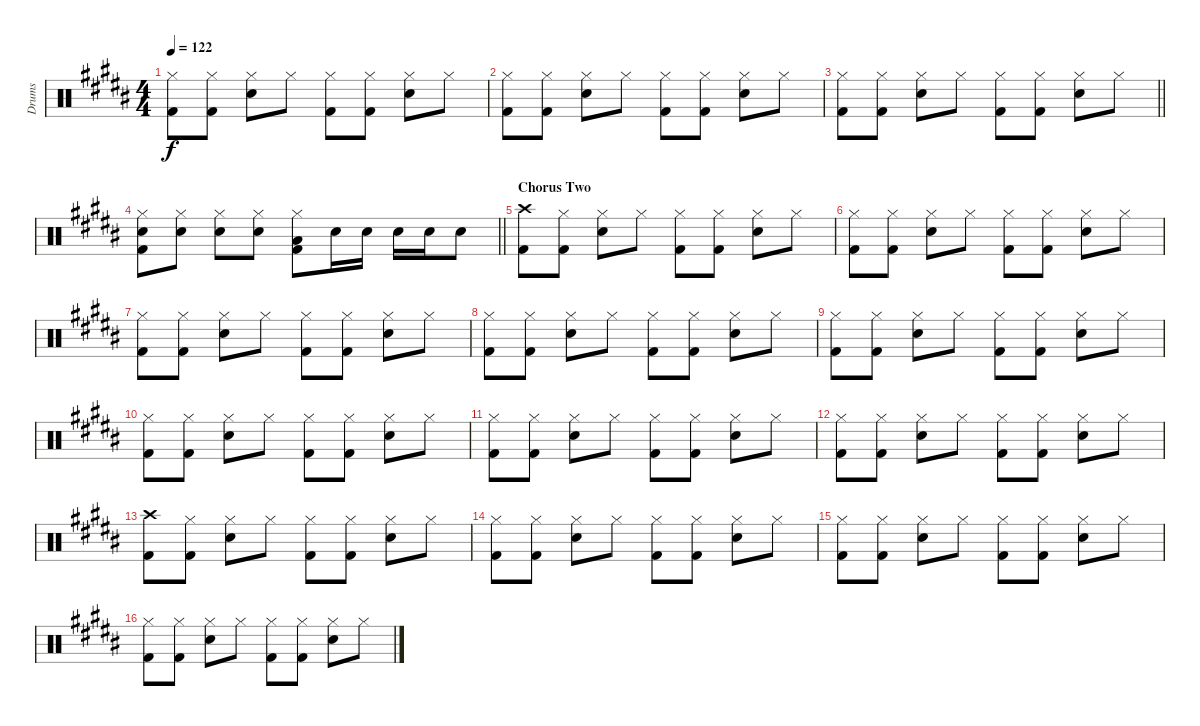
\track ("Drums" "Drums") {instrument percussion}
\staff {score}
\articulation defaults
\ts (4 4)
\tempo 122
\clef neutral
\ks b
("Hi-Hat (closed)" "Kick (hit) 2").8{dy f} ("Hi-Hat (closed)" "Kick (hit) 2").8 ("Hi-Hat (closed)" "Snare (hit) 2").8 "Hi-Hat (closed)".8 ("Hi-Hat (closed)" "Kick (hit) 2").8 ("Hi-Hat (closed)" "Kick (hit) 2").8 ("Hi-Hat (closed)" "Snare (hit) 2").8 "Hi-Hat (closed)".8 |
("Hi-Hat (closed)" "Kick (hit) 2").8 ("Hi-Hat (closed)" "Kick (hit) 2").8 ("Hi-Hat (closed)" "Snare (hit) 2").8 "Hi-Hat (closed)".8 ("Hi-Hat (closed)" "Kick (hit) 2").8 ("Hi-Hat (closed)" "Kick (hit) 2").8 ("Hi-Hat (closed)" "Snare (hit) 2").8 "Hi-Hat (closed)".8 |
\barLineRight lightlight
("Hi-Hat (closed)" "Kick (hit) 2").8 ("Hi-Hat (closed)" "Kick (hit) 2").8 ("Hi-Hat (closed)" "Snare (hit) 2").8 "Hi-Hat (closed)".8 ("Hi-Hat (closed)" "Kick (hit) 2").8 ("Hi-Hat (closed)" "Kick (hit) 2").8 ("Hi-Hat (closed)" "Snare (hit) 2").8 "Hi-Hat (closed)".8 |
\barLineRight lightlight
("Hi-Hat (closed)" "Snare (hit) 2" "Kick (hit) 2").8 ("Hi-Hat (closed)" "Snare (hit) 2").8 ("Hi-Hat (closed)" "Snare (hit) 2").8 ("Hi-Hat (closed)" "Snare (hit) 2").8 ("Hi-Hat (closed)" "Low Tom (hit)" "Kick (hit) 2").8 "Snare (hit) 2".16 "Snare (hit) 2".16 "Snare (hit) 2".16 "Snare (hit) 2".16 "Snare (hit) 2".8 |
\section ("" "Chorus Two")
("Crash high (hit)" "Kick (hit) 2").8 ("Hi-Hat (closed)" "Kick (hit) 2").8 ("Hi-Hat (closed)" "Snare (hit) 2").8 "Hi-Hat (closed)".8 ("Hi-Hat (closed)" "Kick (hit) 2").8 ("Hi-Hat (closed)" "Kick (hit) 2").8 ("Hi-Hat (closed)" "Snare (hit) 2").8 "Hi-Hat (closed)".8 |
("Hi-Hat (closed)" "Kick (hit) 2").8 ("Hi-Hat (closed)" "Kick (hit) 2").8 ("Hi-Hat (closed)" "Snare (hit) 2").8 "Hi-Hat (closed)".8 ("Hi-Hat (closed)" "Kick (hit) 2").8 ("Hi-Hat (closed)" "Kick (hit) 2").8 ("Hi-Hat (closed)" "Snare (hit) 2").8 "Hi-Hat (closed)".8 |
("Hi-Hat (closed)" "Kick (hit) 2").8 ("Hi-Hat (closed)" "Kick (hit) 2").8 ("Hi-Hat (closed)" "Snare (hit) 2").8 "Hi-Hat (closed)".8 ("Hi-Hat (closed)" "Kick (hit) 2").8 ("Hi-Hat (closed)" "Kick (hit) 2").8 ("Hi-Hat (closed)" "Snare (hit) 2").8 "Hi-Hat (closed)".8 |
("Hi-Hat (closed)" "Kick (hit) 2").8 ("Hi-Hat (closed)" "Kick (hit) 2").8 ("Hi-Hat (closed)" "Snare (hit) 2").8 "Hi-Hat (closed)".8 ("Hi-Hat (closed)" "Kick (hit) 2").8 ("Hi-Hat (closed)" "Kick (hit) 2").8 ("Hi-Hat (closed)" "Snare (hit) 2").8 "Hi-Hat (closed)".8 |
("Hi-Hat (closed)" "Kick (hit) 2").8 ("Hi-Hat (closed)" "Kick (hit) 2").8 ("Hi-Hat (closed)" "Snare (hit) 2").8 "Hi-Hat (closed)".8 ("Hi-Hat (closed)" "Kick (hit) 2").8 ("Hi-Hat (closed)" "Kick (hit) 2").8 ("Hi-Hat (closed)" "Snare (hit) 2").8 "Hi-Hat (closed)".8 |
("Hi-Hat (closed)" "Kick (hit) 2").8 ("Hi-Hat (closed)" "Kick (hit) 2").8 ("Hi-Hat (closed)" "Snare (hit) 2").8 "Hi-Hat (closed)".8 ("Hi-Hat (closed)" "Kick (hit) 2").8 ("Hi-Hat (closed)" "Kick (hit) 2").8 ("Hi-Hat (closed)" "Snare (hit) 2").8 "Hi-Hat (closed)".8 |
("Hi-Hat (closed)" "Kick (hit) 2").8 ("Hi-Hat (closed)" "Kick (hit) 2").8 ("Hi-Hat (closed)" "Snare (hit) 2").8 "Hi-Hat (closed)".8 ("Hi-Hat (closed)" "Kick (hit) 2").8 ("Hi-Hat (closed)" "Kick (hit) 2").8 ("Hi-Hat (closed)" "Snare (hit) 2").8 "Hi-Hat (closed)".8 |
("Hi-Hat (closed)" "Kick (hit) 2").8 ("Hi-Hat (closed)" "Kick (hit) 2").8 ("Hi-Hat (closed)" "Snare (hit) 2").8 "Hi-Hat (closed)".8 ("Hi-Hat (closed)" "Kick (hit) 2").8 ("Hi-Hat (closed)" "Kick (hit) 2").8 ("Hi-Hat (closed)" "Snare (hit) 2").8 "Hi-Hat (closed)".8 |
("Crash high (hit)" "Kick (hit) 2").8 ("Hi-Hat (closed)" "Kick (hit) 2").8 ("Hi-Hat (closed)" "Snare (hit) 2").8 "Hi-Hat (closed)".8 ("Hi-Hat (closed)" "Kick (hit) 2").8 ("Hi-Hat (closed)" "Kick (hit) 2").8 ("Hi-Hat (closed)" "Snare (hit) 2").8 "Hi-Hat (closed)".8 |
("Hi-Hat (closed)" "Kick (hit) 2").8 ("Hi-Hat (closed)" "Kick (hit) 2").8 ("Hi-Hat (closed)" "Snare (hit) 2").8 "Hi-Hat (closed)".8 ("Hi-Hat (closed)" "Kick (hit) 2").8 ("Hi-Hat (closed)" "Kick (hit) 2").8 ("Hi-Hat (closed)" "Snare (hit) 2").8 "Hi-Hat (closed)".8 |
("Hi-Hat (closed)" "Kick (hit) 2").8 ("Hi-Hat (closed)" "Kick (hit) 2").8 ("Hi-Hat (closed)" "Snare (hit) 2").8 "Hi-Hat (closed)".8 ("Hi-Hat (closed)" "Kick (hit) 2").8 ("Hi-Hat (closed)" "Kick (hit) 2").8 ("Hi-Hat (closed)" "Snare (hit) 2").8 "Hi-Hat (closed)".8 |
("Hi-Hat (closed)" "Kick (hit) 2").8 ("Hi-Hat (closed)" "Kick (hit) 2").8 ("Hi-Hat (closed)" "Snare (hit) 2").8 "Hi-Hat (closed)".8 ("Hi-Hat (closed)" "Kick (hit) 2").8 ("Hi-Hat (closed)" "Kick (hit) 2").8 ("Hi-Hat (closed)" "Snare (hit) 2").8 "Hi-Hat (closed)".8
